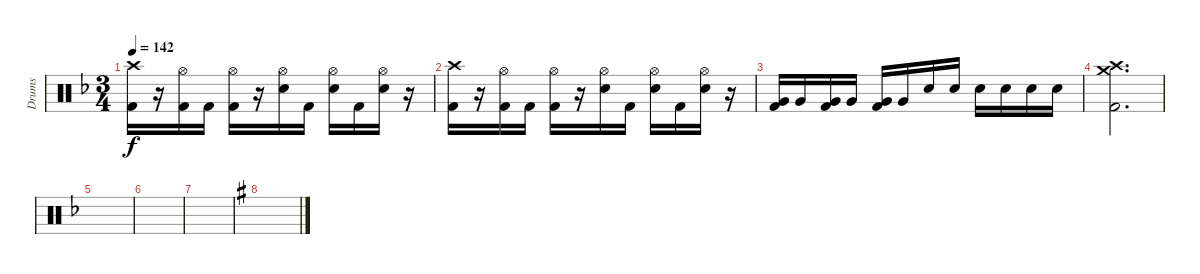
\track ("Drums" "Drums") {instrument percussion}
\staff {score}
\articulation defaults
\ts (3 4)
\tempo 142
\clef neutral
\ks dminor
("Crash high (hit)" "Kick (hit) 2").16{dy f} r.16 ("Hi-Hat (open)" "Kick (hit) 2").16 "Kick (hit) 2".16 ("Hi-Hat (open)" "Kick (hit) 2").16 r.16 ("Hi-Hat (open)" "Electric Snare (hit)").16 "Kick (hit) 2".16 ("Hi-Hat (open)" "Electric Snare (hit)").16 "Kick (hit) 2".16 ("Hi-Hat (open)" "Electric Snare (hit)").16 r.16 |
("Crash high (hit)" "Kick (hit) 2").16 r.16 ("Hi-Hat (open)" "Kick (hit) 2").16 "Kick (hit) 2".16 ("Hi-Hat (open)" "Kick (hit) 2").16 r.16 ("Hi-Hat (open)" "Electric Snare (hit)").16 "Kick (hit) 2".16 ("Hi-Hat (open)" "Electric Snare (hit)").16 "Kick (hit) 2".16 ("Hi-Hat (open)" "Electric Snare (hit)").16 r.16 |
("Very Low Tom (hit)" "Kick (hit) 2").16 "Very Low Tom (hit)".16 ("Very Low Tom (hit)" "Kick (hit) 2").16 "Very Low Tom (hit)".16 ("Very Low Tom (hit)" "Kick (hit) 2").16 "Very Low Tom (hit)".16 "Electric Snare (hit)".16 "Electric Snare (hit)".16 "Electric Snare (hit)".16 "Electric Snare (hit)".16 "Electric Snare (hit)".16 "Electric Snare (hit)".16 |
("Crash high (hit)" "Crash medium (hit)" "Kick (hit) 2").2{d} |
|
|
|
\ks eminor
